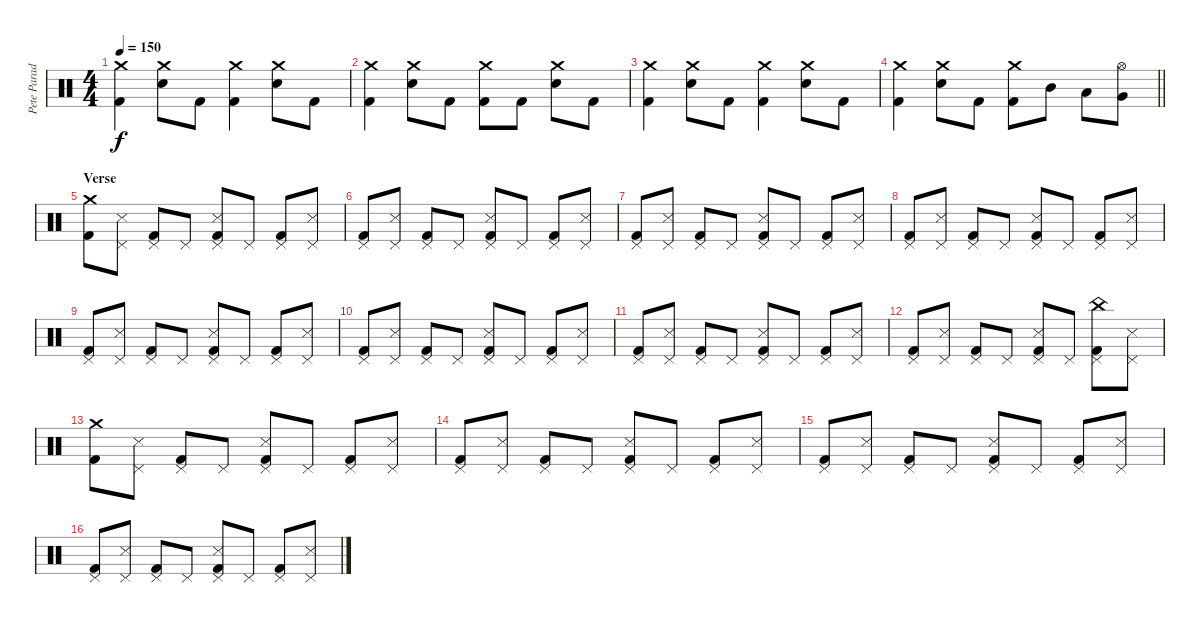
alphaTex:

\track ("Pete Parada - Drums" "Pete Parad") {instrument percussion}
\staff {score}
\articulation defaults
\ts (4 4)
\tempo 150
\clef neutral
\ks c
("Crash medium (hit)" "Kick (hit) 2").4{dy f} ("Crash medium (hit)" "Electric Snare (hit)").8 "Kick (hit) 2".8 ("Crash medium (hit)" "Kick (hit) 2").4 ("Crash medium (hit)" "Electric Snare (hit)").8 "Kick (hit) 2".8 |
("Crash medium (hit)" "Kick (hit) 2").4 ("Crash medium (hit)" "Electric Snare (hit)").8 "Kick (hit) 2".8 ("Crash medium (hit)" "Kick (hit) 2").8 "Kick (hit) 2".8 ("Crash medium (hit)" "Electric Snare (hit)").8 "Kick (hit) 2".8 |
("Crash medium (hit)" "Kick (hit) 2").4 ("Crash medium (hit)" "Electric Snare (hit)").8 "Kick (hit) 2".8 ("Crash medium (hit)" "Kick (hit) 2").4 ("Crash medium (hit)" "Electric Snare (hit)").8 "Kick (hit) 2".8 |
\barLineRight lightlight
("Crash medium (hit)" "Kick (hit) 2").4 ("Crash medium (hit)" "Electric Snare (hit)").8 "Kick (hit) 2".8 ("Crash medium (hit)" "Kick (hit) 2").8 "Mid Tom (hit)".8 "Low Tom (hit)".8 ("Hi-Hat (open)" "Very Low Tom (hit)").8 |
\section ("" "Verse")
("Crash medium (hit)" "Kick (hit) 2").8 ("Pedal Hi-Hat (hit)" "Snare (side stick) 3").8 ("Pedal Hi-Hat (hit)" "Kick (hit) 2").8 "Pedal Hi-Hat (hit)".8 ("Pedal Hi-Hat (hit)" "Snare (side stick) 3" "Kick (hit) 2").8 "Pedal Hi-Hat (hit)".8 ("Pedal Hi-Hat (hit)" "Kick (hit) 2").8 ("Pedal Hi-Hat (hit)" "Snare (side stick) 3").8 |
("Pedal Hi-Hat (hit)" "Kick (hit) 2").8 ("Pedal Hi-Hat (hit)" "Snare (side stick) 3").8 ("Pedal Hi-Hat (hit)" "Kick (hit) 2").8 "Pedal Hi-Hat (hit)".8 ("Pedal Hi-Hat (hit)" "Snare (side stick) 3" "Kick (hit) 2").8 "Pedal Hi-Hat (hit)".8 ("Pedal Hi-Hat (hit)" "Kick (hit) 2").8 ("Pedal Hi-Hat (hit)" "Snare (side stick) 3").8 |
("Pedal Hi-Hat (hit)" "Kick (hit) 2").8 ("Pedal Hi-Hat (hit)" "Snare (side stick) 3").8 ("Pedal Hi-Hat (hit)" "Kick (hit) 2").8 "Pedal Hi-Hat (hit)".8 ("Pedal Hi-Hat (hit)" "Snare (side stick) 3" "Kick (hit) 2").8 "Pedal Hi-Hat (hit)".8 ("Pedal Hi-Hat (hit)" "Kick (hit) 2").8 ("Pedal Hi-Hat (hit)" "Snare (side stick) 3").8 |
("Pedal Hi-Hat (hit)" "Kick (hit) 2").8 ("Pedal Hi-Hat (hit)" "Snare (side stick) 3").8 ("Pedal Hi-Hat (hit)" "Kick (hit) 2").8 "Pedal Hi-Hat (hit)".8 ("Pedal Hi-Hat (hit)" "Snare (side stick) 3" "Kick (hit) 2").8 "Pedal Hi-Hat (hit)".8 ("Pedal Hi-Hat (hit)" "Kick (hit) 2").8 ("Pedal Hi-Hat (hit)" "Snare (side stick) 3").8 |
("Pedal Hi-Hat (hit)" "Kick (hit) 2").8 ("Pedal Hi-Hat (hit)" "Snare (side stick) 3").8 ("Pedal Hi-Hat (hit)" "Kick (hit) 2").8 "Pedal Hi-Hat (hit)".8 ("Pedal Hi-Hat (hit)" "Snare (side stick) 3" "Kick (hit) 2").8 "Pedal Hi-Hat (hit)".8 ("Pedal Hi-Hat (hit)" "Kick (hit) 2").8 ("Pedal Hi-Hat (hit)" "Snare (side stick) 3").8 |
("Pedal Hi-Hat (hit)" "Kick (hit) 2").8 ("Pedal Hi-Hat (hit)" "Snare (side stick) 3").8 ("Pedal Hi-Hat (hit)" "Kick (hit) 2").8 "Pedal Hi-Hat (hit)".8 ("Pedal Hi-Hat (hit)" "Snare (side stick) 3" "Kick (hit) 2").8 "Pedal Hi-Hat (hit)".8 ("Pedal Hi-Hat (hit)" "Kick (hit) 2").8 ("Pedal Hi-Hat (hit)" "Snare (side stick) 3").8 |
("Pedal Hi-Hat (hit)" "Kick (hit) 2").8 ("Pedal Hi-Hat (hit)" "Snare (side stick) 3").8 ("Pedal Hi-Hat (hit)" "Kick (hit) 2").8 "Pedal Hi-Hat (hit)".8 ("Pedal Hi-Hat (hit)" "Snare (side stick) 3" "Kick (hit) 2").8 "Pedal Hi-Hat (hit)".8 ("Pedal Hi-Hat (hit)" "Kick (hit) 2").8 ("Pedal Hi-Hat (hit)" "Snare (side stick) 3").8 |
("Pedal Hi-Hat (hit)" "Kick (hit) 2").8 ("Pedal Hi-Hat (hit)" "Snare (side stick) 3").8 ("Pedal Hi-Hat (hit)" "Kick (hit) 2").8 "Pedal Hi-Hat (hit)".8 ("Pedal Hi-Hat (hit)" "Snare (side stick) 3" "Kick (hit) 2").8 "Pedal Hi-Hat (hit)".8 ("Pedal Hi-Hat (hit)" "China (hit)" "Kick (hit) 2").8 ("Pedal Hi-Hat (hit)" "Snare (side stick) 3").8 |
("Crash medium (hit)" "Kick (hit) 2").8 ("Pedal Hi-Hat (hit)" "Snare (side stick) 3").8 ("Pedal Hi-Hat (hit)" "Kick (hit) 2").8 "Pedal Hi-Hat (hit)".8 ("Pedal Hi-Hat (hit)" "Snare (side stick) 3" "Kick (hit) 2").8 "Pedal Hi-Hat (hit)".8 ("Pedal Hi-Hat (hit)" "Kick (hit) 2").8 ("Pedal Hi-Hat (hit)" "Snare (side stick) 3").8 |
("Pedal Hi-Hat (hit)" "Kick (hit) 2").8 ("Pedal Hi-Hat (hit)" "Snare (side stick) 3").8 ("Pedal Hi-Hat (hit)" "Kick (hit) 2").8 "Pedal Hi-Hat (hit)".8 ("Pedal Hi-Hat (hit)" "Snare (side stick) 3" "Kick (hit) 2").8 "Pedal Hi-Hat (hit)".8 ("Pedal Hi-Hat (hit)" "Kick (hit) 2").8 ("Pedal Hi-Hat (hit)" "Snare (side stick) 3").8 |
("Pedal Hi-Hat (hit)" "Kick (hit) 2").8 ("Pedal Hi-Hat (hit)" "Snare (side stick) 3").8 ("Pedal Hi-Hat (hit)" "Kick (hit) 2").8 "Pedal Hi-Hat (hit)".8 ("Pedal Hi-Hat (hit)" "Snare (side stick) 3" "Kick (hit) 2").8 "Pedal Hi-Hat (hit)".8 ("Pedal Hi-Hat (hit)" "Kick (hit) 2").8 ("Pedal Hi-Hat (hit)" "Snare (side stick) 3").8 |
("Pedal Hi-Hat (hit)" "Kick (hit) 2").8 ("Pedal Hi-Hat (hit)" "Snare (side stick) 3").8 ("Pedal Hi-Hat (hit)" "Kick (hit) 2").8 "Pedal Hi-Hat (hit)".8 ("Pedal Hi-Hat (hit)" "Snare (side stick) 3" "Kick (hit) 2").8 "Pedal Hi-Hat (hit)".8 ("Pedal Hi-Hat (hit)" "Kick (hit) 2").8 ("Pedal Hi-Hat (hit)" "Snare (side stick) 3").8
